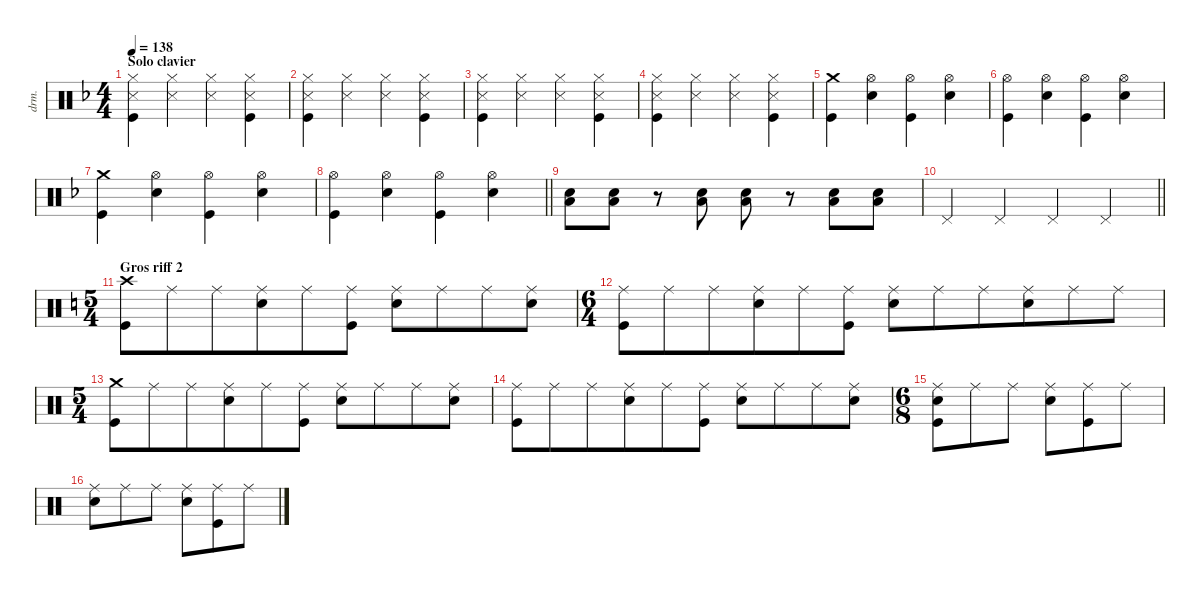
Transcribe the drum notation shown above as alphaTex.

\defaultSystemsLayout 4
\hideDynamics
\bracketExtendMode nobrackets
\track ("Percussions" "drm.") {instrument percussion}
\staff {score}
\articulation defaults
\ts (4 4)
\section ("" "Solo clavier")
\tempo 138
\clef neutral
\ks dminor
("Hi-Hat (closed)"{acc forcenatural} "Snare (side stick) 3"{acc forcenatural} "Kick (hit)"{acc forcenatural}).4{dy f} ("Hi-Hat (closed)"{acc forcenatural} "Snare (side stick) 3"{acc forcenatural}).4 ("Hi-Hat (closed)"{acc forcenatural} "Snare (side stick) 3"{acc forcenatural}).4 ("Hi-Hat (closed)"{acc forcenatural} "Snare (side stick) 3"{acc forcenatural} "Kick (hit)"{acc forcenatural}).4 |
("Hi-Hat (closed)"{acc forcenatural} "Snare (side stick) 3"{acc forcenatural} "Kick (hit)"{acc forcenatural}).4 ("Hi-Hat (closed)"{acc forcenatural} "Snare (side stick) 3"{acc forcenatural}).4 ("Hi-Hat (closed)"{acc forcenatural} "Snare (side stick) 3"{acc forcenatural}).4 ("Hi-Hat (closed)"{acc forcenatural} "Snare (side stick) 3"{acc forcenatural} "Kick (hit)"{acc forcenatural}).4 |
("Hi-Hat (closed)"{acc forcenatural} "Snare (side stick) 3"{acc forcenatural} "Kick (hit)"{acc forcenatural}).4 ("Hi-Hat (closed)"{acc forcenatural} "Snare (side stick) 3"{acc forcenatural}).4 ("Hi-Hat (closed)"{acc forcenatural} "Snare (side stick) 3"{acc forcenatural}).4 ("Hi-Hat (closed)"{acc forcenatural} "Snare (side stick) 3"{acc forcenatural} "Kick (hit)"{acc forcenatural}).4 |
("Hi-Hat (closed)"{acc forcenatural} "Snare (side stick) 3"{acc forcenatural} "Kick (hit)"{acc forcenatural}).4 ("Hi-Hat (closed)"{acc forcenatural} "Snare (side stick) 3"{acc forcenatural}).4 ("Hi-Hat (closed)"{acc forcenatural} "Snare (side stick) 3"{acc forcenatural}).4 ("Hi-Hat (closed)"{acc forcenatural} "Snare (side stick) 3"{acc forcenatural} "Kick (hit)"{acc forcenatural}).4 |
("Crash medium (hit)"{acc forcenatural} "Kick (hit)"{acc forcenatural}).4 ("Hi-Hat (open)"{acc forcenatural} "Snare (hit) 2"{acc forcenatural}).4 ("Hi-Hat (open)"{acc forcenatural} "Kick (hit)"{acc forcenatural}).4 ("Hi-Hat (open)"{acc forcenatural} "Snare (hit) 2"{acc forcenatural}).4 |
("Hi-Hat (open)"{acc forcenatural} "Kick (hit)"{acc forcenatural}).4 ("Hi-Hat (open)"{acc forcenatural} "Snare (hit) 2"{acc forcenatural}).4 ("Hi-Hat (open)"{acc forcenatural} "Kick (hit)"{acc forcenatural}).4 ("Hi-Hat (open)"{acc forcenatural} "Snare (hit) 2"{acc forcenatural}).4 |
("Crash medium (hit)"{acc forcenatural} "Kick (hit)"{acc forcenatural}).4 ("Hi-Hat (open)"{acc forcenatural} "Snare (hit) 2"{acc forcenatural}).4 ("Hi-Hat (open)"{acc forcenatural} "Kick (hit)"{acc forcenatural}).4 ("Hi-Hat (open)"{acc forcenatural} "Snare (hit) 2"{acc forcenatural}).4 |
\barLineRight lightlight
("Hi-Hat (open)"{acc forcenatural} "Kick (hit)"{acc forcenatural}).4 ("Hi-Hat (open)"{acc forcenatural} "Snare (hit) 2"{acc forcenatural}).4 ("Hi-Hat (open)"{acc forcenatural} "Kick (hit)"{acc forcenatural}).4 ("Hi-Hat (open)"{acc forcenatural} "Snare (hit) 2"{acc forcenatural}).4 |
("Snare (hit) 2"{acc forcenatural} "Low Tom (hit)"{acc forcenatural}).8 ("Snare (hit) 2"{acc forcenatural} "Low Tom (hit)"{acc forcenatural}).8 r.8 ("Snare (hit) 2"{acc forcenatural} "Low Tom (hit)"{acc forcenatural}).8 ("Snare (hit) 2"{acc forcenatural} "Low Tom (hit)"{acc forcenatural}).8 r.8 ("Snare (hit) 2"{acc forcenatural} "Low Tom (hit)"{acc forcenatural}).8 ("Snare (hit) 2"{acc forcenatural} "Low Tom (hit)"{acc forcenatural}).8 |
\barLineRight lightlight "Pedal Hi-Hat (hit)"{acc forcenatural}.4 "Pedal Hi-Hat (hit)"{acc forcenatural}.4 "Pedal Hi-Hat (hit)"{acc forcenatural}.4 "Pedal Hi-Hat (hit)"{acc forcenatural}.4
|
\ts (5 4)
\beaming (8 6 4)
\section ("" "Gros riff 2")
\ks aminor
("Crash high (hit)" "Kick (hit)").8 "Ride (middle)".8 "Ride (middle)".8 ("Ride (middle)" "Snare (hit) 2").8 "Ride (middle)".8 ("Ride (middle)" "Kick (hit)").8 ("Ride (middle)" "Snare (hit) 2").8 "Ride (middle)".8 "Ride (middle)".8 ("Ride (middle)" "Snare (hit) 2").8 |
\ts (6 4)
\beaming (8 6 6)
("Ride (middle)" "Kick (hit)").8 "Ride (middle)".8 "Ride (middle)".8 ("Ride (middle)" "Snare (hit) 2").8 "Ride (middle)".8 ("Ride (middle)" "Kick (hit)").8 ("Ride (middle)" "Snare (hit) 2").8 "Ride (middle)".8 "Ride (middle)".8 ("Ride (middle)" "Snare (hit) 2").8 "Ride (middle)".8 "Ride (middle)".8 |
\ts (5 4)
\beaming (8 6 4)
("Crash medium (hit)" "Kick (hit)").8 "Ride (middle)".8 "Ride (middle)".8 ("Ride (middle)" "Snare (hit) 2").8 "Ride (middle)".8 ("Ride (middle)" "Kick (hit)").8 ("Ride (middle)" "Snare (hit) 2").8 "Ride (middle)".8 "Ride (middle)".8 ("Ride (middle)" "Snare (hit) 2").8 |
("Ride (middle)" "Kick (hit)").8 "Ride (middle)".8 "Ride (middle)".8 ("Ride (middle)" "Snare (hit) 2").8 "Ride (middle)".8 ("Ride (middle)" "Kick (hit)").8 ("Ride (middle)" "Snare (hit) 2").8 "Ride (middle)".8 "Ride (middle)".8 ("Ride (middle)" "Snare (hit) 2").8 |
\ts (6 8)
\beaming (8 3 3)
("Ride (middle)" "Snare (hit) 2" "Kick (hit)").8 "Ride (middle)".8 "Ride (middle)".8 ("Ride (middle)" "Snare (hit) 2").8 ("Ride (middle)" "Kick (hit)").8 "Ride (middle)".8 |
("Ride (middle)" "Snare (hit) 2").8 "Ride (middle)".8 "Ride (middle)".8 ("Ride (middle)" "Snare (hit) 2").8 ("Ride (middle)" "Kick (hit)").8 "Ride (middle)".8
